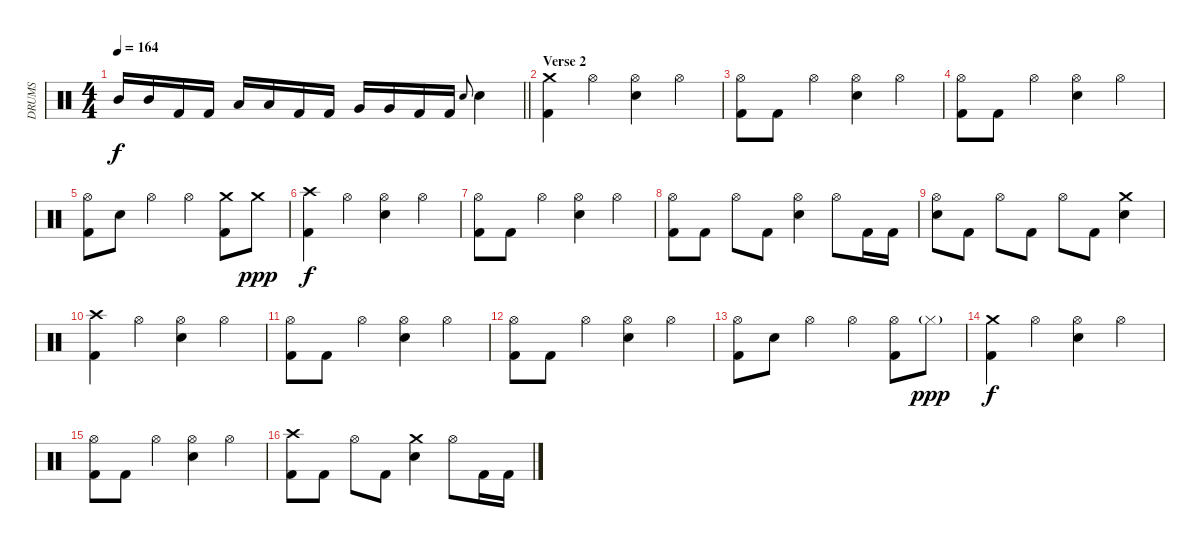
\track ("DRUMS" "DRUMS") {instrument percussion}
\staff {score}
\articulation defaults
\ts (4 4)
\tempo 164
\clef neutral
\barLineRight lightlight
\ks c "Mid Tom (hit)".16{dy f} "Mid Tom (hit)".16 "Kick (hit) 2".16 "Kick (hit) 2".16 "Low Tom (hit)".16 "Low Tom (hit)".16 "Kick (hit) 2".16 "Kick (hit) 2".16 "Very Low Tom (hit)".16 "Very Low Tom (hit)".16 "Kick (hit) 2".16 "Kick (hit) 2".16 "Snare (hit) 2".8{gr onbeat} "Snare (hit) 2".4
|
\section ("" "Verse 2")
("Crash medium (hit)" "Kick (hit) 2").4 "Hi-Hat (open)".4 ("Hi-Hat (open)" "Snare (hit) 2").4 "Hi-Hat (open)".4 |
("Hi-Hat (open)" "Kick (hit) 2").8 "Kick (hit) 2".8 "Hi-Hat (open)".4 ("Hi-Hat (open)" "Snare (hit) 2").4 "Hi-Hat (open)".4 |
("Hi-Hat (open)" "Kick (hit) 2").8 "Kick (hit) 2".8 "Hi-Hat (open)".4 ("Hi-Hat (open)" "Snare (hit) 2").4 "Hi-Hat (open)".4 |
("Hi-Hat (open)" "Kick (hit) 2").8 "Snare (hit) 2".8 "Hi-Hat (open)".4 "Hi-Hat (open)".4 ("Crash medium (hit)" "Kick (hit) 2").8 "Crash medium (hit)".8{dy ppp} |
("Crash high (hit)" "Kick (hit) 2").4{dy f} "Hi-Hat (open)".4 ("Hi-Hat (open)" "Snare (hit) 2").4 "Hi-Hat (open)".4 |
("Hi-Hat (open)" "Kick (hit) 2").8 "Kick (hit) 2".8 "Hi-Hat (open)".4 ("Hi-Hat (open)" "Snare (hit) 2").4 "Hi-Hat (open)".4 |
("Hi-Hat (open)" "Kick (hit) 2").8 "Kick (hit) 2".8 "Hi-Hat (open)".8 "Kick (hit) 2".8 ("Hi-Hat (open)" "Snare (hit) 2").4 "Hi-Hat (open)".8 "Kick (hit) 2".16 "Kick (hit) 2".16 |
("Hi-Hat (open)" "Snare (hit) 2").8 "Kick (hit) 2".8 "Hi-Hat (open)".8 "Kick (hit) 2".8 "Hi-Hat (open)".8 "Kick (hit) 2".8 ("Crash medium (hit)" "Snare (hit) 2").4 |
("Crash high (hit)" "Kick (hit) 2").4 "Hi-Hat (open)".4 ("Hi-Hat (open)" "Snare (hit) 2").4 "Hi-Hat (open)".4 |
("Hi-Hat (open)" "Kick (hit) 2").8 "Kick (hit) 2".8 "Hi-Hat (open)".4 ("Hi-Hat (open)" "Snare (hit) 2").4 "Hi-Hat (open)".4 |
("Hi-Hat (open)" "Kick (hit) 2").8 "Kick (hit) 2".8 "Hi-Hat (open)".4 ("Hi-Hat (open)" "Snare (hit) 2").4 "Hi-Hat (open)".4 |
("Hi-Hat (open)" "Kick (hit) 2").8 "Snare (hit) 2".8 "Hi-Hat (open)".4 "Hi-Hat (open)".4 ("Hi-Hat (open)" "Kick (hit) 2").8 "Hi-Hat (closed)"{g}.8{dy ppp} |
("Crash medium (hit)" "Kick (hit) 2").4{dy f} "Hi-Hat (open)".4 ("Hi-Hat (open)" "Snare (hit) 2").4 "Hi-Hat (open)".4 |
("Hi-Hat (open)" "Kick (hit) 2").8 "Kick (hit) 2".8 "Hi-Hat (open)".4 ("Hi-Hat (open)" "Snare (hit) 2").4 "Hi-Hat (open)".4 |
("Crash high (hit)" "Kick (hit) 2").8 "Kick (hit) 2".8 "Hi-Hat (open)".8 "Kick (hit) 2".8 ("Crash medium (hit)" "Snare (hit) 2").4 "Hi-Hat (open)".8 "Kick (hit) 2".16 "Kick (hit) 2".16
